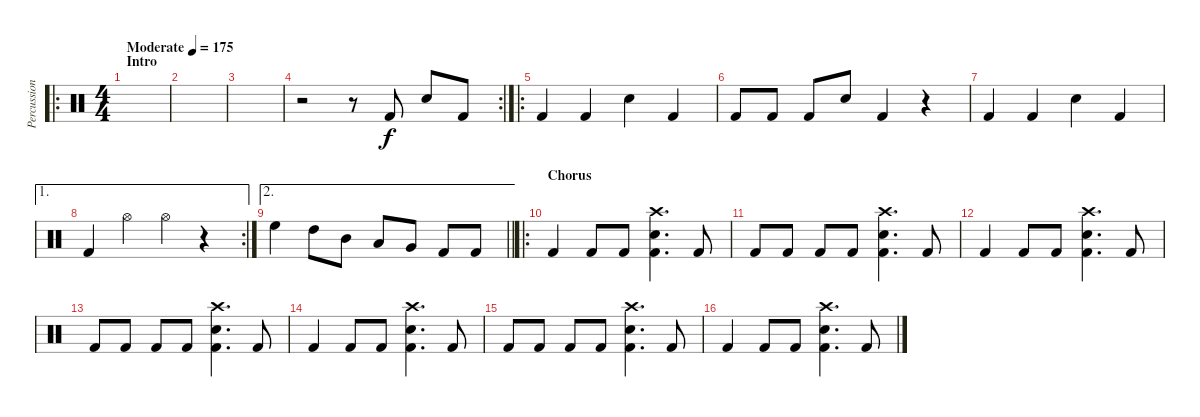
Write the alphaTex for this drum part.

\track ("Percussion" "Percussion") {instrument percussion}
\staff {score}
\articulation defaults
\ro
\ts (4 4)
\section ("" "Intro")
\tempo (175 "Moderate")
\clef neutral
\ks c
|
|
|
\rc 2
r.2 r.8 "Kick (hit) 2".8 "Snare (hit) 2".8 "Kick (hit) 2".8 |
\ro "Kick (hit) 2".4 "Kick (hit) 2".4 "Snare (hit) 2".4 "Kick (hit) 2".4
|
"Kick (hit) 2".8 "Kick (hit) 2".8 "Kick (hit) 2".8 "Snare (hit) 2".8 "Kick (hit) 2".4 r.4 |
"Kick (hit) 2".4 "Kick (hit) 2".4 "Snare (hit) 2".4 "Kick (hit) 2".4 |
\ae 1
\rc 2 "Kick (hit) 2".4 "Hi-Hat (open)".4 "Hi-Hat (open)".4
r.4 |
\ae 2
\barLineRight lightlight "High Floor Tom (hit)".4 "High Tom (hit)".8 "Mid Tom (hit)".8 "Low Tom (hit)".8 "Very Low Tom (hit)".8 "Kick (hit) 2".8 "Kick (hit) 2".8
|
\ro
\section ("" "Chorus")
"Kick (hit) 2".4 "Kick (hit) 2".8 "Kick (hit) 2".8 ("Crash high (hit)" "Snare (hit) 2" "Kick (hit) 2").4{d} "Kick (hit) 2".8 |
"Kick (hit) 2".8 "Kick (hit) 2".8 "Kick (hit) 2".8 "Kick (hit) 2".8 ("Crash high (hit)" "Snare (hit) 2" "Kick (hit) 2").4{d} "Kick (hit) 2".8 |
"Kick (hit) 2".4 "Kick (hit) 2".8 "Kick (hit) 2".8 ("Crash high (hit)" "Snare (hit) 2" "Kick (hit) 2").4{d} "Kick (hit) 2".8 |
"Kick (hit) 2".8 "Kick (hit) 2".8 "Kick (hit) 2".8 "Kick (hit) 2".8 ("Crash high (hit)" "Snare (hit) 2" "Kick (hit) 2").4{d} "Kick (hit) 2".8 |
"Kick (hit) 2".4 "Kick (hit) 2".8 "Kick (hit) 2".8 ("Crash high (hit)" "Snare (hit) 2" "Kick (hit) 2").4{d} "Kick (hit) 2".8 |
"Kick (hit) 2".8 "Kick (hit) 2".8 "Kick (hit) 2".8 "Kick (hit) 2".8 ("Crash high (hit)" "Snare (hit) 2" "Kick (hit) 2").4{d} "Kick (hit) 2".8 |
"Kick (hit) 2".4 "Kick (hit) 2".8 "Kick (hit) 2".8 ("Crash high (hit)" "Snare (hit) 2" "Kick (hit) 2").4{d} "Kick (hit) 2".8
